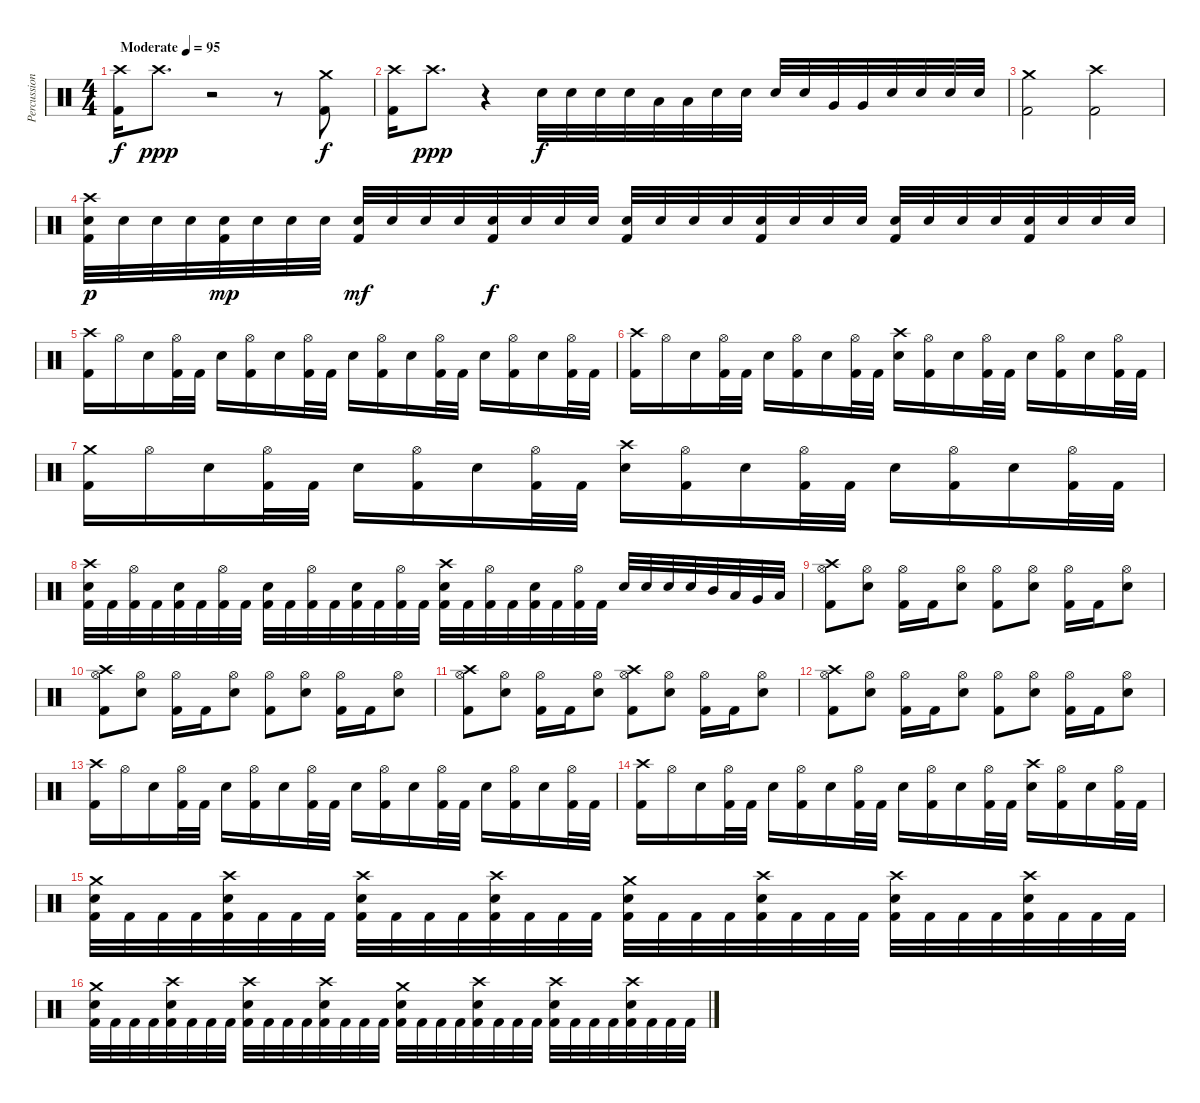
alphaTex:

\track ("Percussion" "Percussion") {instrument percussion}
\staff {score}
\articulation defaults
\ts (4 4)
\tempo (95 "Moderate")
\clef neutral
\ks c
("Crash high (hit)" "Kick (hit) 2").16{dy f} "Crash high (hit)".8{d dy ppp} r.2 r.8 ("Crash medium (hit)" "Kick (hit) 2").8{dy f} |
("Crash high (hit)" "Kick (hit) 2").16 "Crash high (hit)".8{d dy ppp} r.4 "Electric Snare (hit)".32{dy f} "Electric Snare (hit)".32 "Electric Snare (hit)".32 "Electric Snare (hit)".32 "Low Tom (hit)".32 "Low Tom (hit)".32 "Electric Snare (hit)".32 "Electric Snare (hit)".32 "Electric Snare (hit)".32 "Electric Snare (hit)".32 "Very Low Tom (hit)".32 "Very Low Tom (hit)".32 "Electric Snare (hit)".32 "Electric Snare (hit)".32 "Electric Snare (hit)".32 "Electric Snare (hit)".32 |
("Crash medium (hit)" "Kick (hit) 2").2 ("Crash high (hit)" "Kick (hit) 2").2 |
("Crash high (hit)" "Electric Snare (hit)" "Kick (hit) 2").32{dy p} "Electric Snare (hit)".32 "Electric Snare (hit)".32 "Electric Snare (hit)".32 ("Electric Snare (hit)" "Kick (hit) 2").32{dy mp} "Electric Snare (hit)".32 "Electric Snare (hit)".32 "Electric Snare (hit)".32 ("Electric Snare (hit)" "Kick (hit) 2").32{dy mf} "Electric Snare (hit)".32 "Electric Snare (hit)".32 "Electric Snare (hit)".32 ("Electric Snare (hit)" "Kick (hit) 2").32{dy f} "Electric Snare (hit)".32 "Electric Snare (hit)".32 "Electric Snare (hit)".32 ("Electric Snare (hit)" "Kick (hit) 2").32 "Electric Snare (hit)".32 "Electric Snare (hit)".32 "Electric Snare (hit)".32 ("Electric Snare (hit)" "Kick (hit) 2").32 "Electric Snare (hit)".32 "Electric Snare (hit)".32 "Electric Snare (hit)".32 ("Electric Snare (hit)" "Kick (hit) 2").32 "Electric Snare (hit)".32 "Electric Snare (hit)".32 "Electric Snare (hit)".32 ("Electric Snare (hit)" "Kick (hit) 2").32 "Electric Snare (hit)".32 "Electric Snare (hit)".32 "Electric Snare (hit)".32 |
("Crash high (hit)" "Kick (hit) 2").16 "Hi-Hat (open)".16 "Electric Snare (hit)".16 ("Hi-Hat (open)" "Kick (hit) 2").32 "Kick (hit) 2".32 "Electric Snare (hit)".16 ("Hi-Hat (open)" "Kick (hit) 2").16 "Electric Snare (hit)".16 ("Hi-Hat (open)" "Kick (hit) 2").32 "Kick (hit) 2".32 "Electric Snare (hit)".16 ("Hi-Hat (open)" "Kick (hit) 2").16 "Electric Snare (hit)".16 ("Hi-Hat (open)" "Kick (hit) 2").32 "Kick (hit) 2".32 "Electric Snare (hit)".16 ("Hi-Hat (open)" "Kick (hit) 2").16 "Electric Snare (hit)".16 ("Hi-Hat (open)" "Kick (hit) 2").32 "Kick (hit) 2".32 |
("Crash high (hit)" "Kick (hit) 2").16 "Hi-Hat (open)".16 "Electric Snare (hit)".16 ("Hi-Hat (open)" "Kick (hit) 2").32 "Kick (hit) 2".32 "Electric Snare (hit)".16 ("Hi-Hat (open)" "Kick (hit) 2").16 "Electric Snare (hit)".16 ("Hi-Hat (open)" "Kick (hit) 2").32 "Kick (hit) 2".32 ("Crash high (hit)" "Electric Snare (hit)").16 ("Hi-Hat (open)" "Kick (hit) 2").16 "Electric Snare (hit)".16 ("Hi-Hat (open)" "Kick (hit) 2").32 "Kick (hit) 2".32 "Electric Snare (hit)".16 ("Hi-Hat (open)" "Kick (hit) 2").16 "Electric Snare (hit)".16 ("Hi-Hat (open)" "Kick (hit) 2").32 "Kick (hit) 2".32 |
("Crash medium (hit)" "Kick (hit) 2").16 "Hi-Hat (open)".16 "Electric Snare (hit)".16 ("Hi-Hat (open)" "Kick (hit) 2").32 "Kick (hit) 2".32 "Electric Snare (hit)".16 ("Hi-Hat (open)" "Kick (hit) 2").16 "Electric Snare (hit)".16 ("Hi-Hat (open)" "Kick (hit) 2").32 "Kick (hit) 2".32 ("Crash high (hit)" "Electric Snare (hit)").16 ("Hi-Hat (open)" "Kick (hit) 2").16 "Electric Snare (hit)".16 ("Hi-Hat (open)" "Kick (hit) 2").32 "Kick (hit) 2".32 "Electric Snare (hit)".16 ("Hi-Hat (open)" "Kick (hit) 2").16 "Electric Snare (hit)".16 ("Hi-Hat (open)" "Kick (hit) 2").32 "Kick (hit) 2".32 |
("Crash high (hit)" "Electric Snare (hit)" "Kick (hit) 2").32 "Kick (hit) 2".32 ("Hi-Hat (open)" "Kick (hit) 2").32 "Kick (hit) 2".32 ("Electric Snare (hit)" "Kick (hit) 2").32 "Kick (hit) 2".32 ("Hi-Hat (open)" "Kick (hit) 2").32 "Kick (hit) 2".32 ("Electric Snare (hit)" "Kick (hit) 2").32 "Kick (hit) 2".32 ("Hi-Hat (open)" "Kick (hit) 2").32 "Kick (hit) 2".32 ("Electric Snare (hit)" "Kick (hit) 2").32 "Kick (hit) 2".32 ("Hi-Hat (open)" "Kick (hit) 2").32 "Kick (hit) 2".32 ("Crash high (hit)" "Electric Snare (hit)" "Kick (hit) 2").32 "Kick (hit) 2".32 ("Hi-Hat (open)" "Kick (hit) 2").32 "Kick (hit) 2".32 ("Electric Snare (hit)" "Kick (hit) 2").32 "Kick (hit) 2".32 ("Hi-Hat (open)" "Kick (hit) 2").32 "Kick (hit) 2".32 "Electric Snare (hit)".32 "Electric Snare (hit)".32 "Electric Snare (hit)".32 "Electric Snare (hit)".32 "Mid Tom (hit)".32 "Low Tom (hit)".32 "Very Low Tom (hit)".32 "Low Floor Tom (hit)".32 |
("Crash high (hit)" "Hi-Hat (open)" "Kick (hit) 2").8 ("Hi-Hat (open)" "Electric Snare (hit)").8 ("Hi-Hat (open)" "Kick (hit) 2").16 "Kick (hit) 2".16 ("Hi-Hat (open)" "Electric Snare (hit)").8 ("Hi-Hat (open)" "Kick (hit) 2").8 ("Hi-Hat (open)" "Electric Snare (hit)").8 ("Hi-Hat (open)" "Kick (hit) 2").16 "Kick (hit) 2".16 ("Hi-Hat (open)" "Electric Snare (hit)").8 |
("Crash high (hit)" "Hi-Hat (open)" "Kick (hit) 2").8 ("Hi-Hat (open)" "Electric Snare (hit)").8 ("Hi-Hat (open)" "Kick (hit) 2").16 "Kick (hit) 2".16 ("Hi-Hat (open)" "Electric Snare (hit)").8 ("Hi-Hat (open)" "Kick (hit) 2").8 ("Hi-Hat (open)" "Electric Snare (hit)").8 ("Hi-Hat (open)" "Kick (hit) 2").16 "Kick (hit) 2".16 ("Hi-Hat (open)" "Electric Snare (hit)").8 |
("Crash high (hit)" "Hi-Hat (open)" "Kick (hit) 2").8 ("Hi-Hat (open)" "Electric Snare (hit)").8 ("Hi-Hat (open)" "Kick (hit) 2").16 "Kick (hit) 2".16 ("Hi-Hat (open)" "Electric Snare (hit)").8 ("Crash high (hit)" "Hi-Hat (open)" "Kick (hit) 2").8 ("Hi-Hat (open)" "Electric Snare (hit)").8 ("Hi-Hat (open)" "Kick (hit) 2").16 "Kick (hit) 2".16 ("Hi-Hat (open)" "Electric Snare (hit)").8 |
("Crash high (hit)" "Hi-Hat (open)" "Kick (hit) 2").8 ("Hi-Hat (open)" "Electric Snare (hit)").8 ("Hi-Hat (open)" "Kick (hit) 2").16 "Kick (hit) 2".16 ("Hi-Hat (open)" "Electric Snare (hit)").8 ("Hi-Hat (open)" "Kick (hit) 2").8 ("Hi-Hat (open)" "Electric Snare (hit)").8 ("Hi-Hat (open)" "Kick (hit) 2").16 "Kick (hit) 2".16 ("Hi-Hat (open)" "Electric Snare (hit)").8 |
("Crash high (hit)" "Kick (hit) 2").16 "Hi-Hat (open)".16 "Electric Snare (hit)".16 ("Hi-Hat (open)" "Kick (hit) 2").32 "Kick (hit) 2".32 "Electric Snare (hit)".16 ("Hi-Hat (open)" "Kick (hit) 2").16 "Electric Snare (hit)".16 ("Hi-Hat (open)" "Kick (hit) 2").32 "Kick (hit) 2".32 "Electric Snare (hit)".16 ("Hi-Hat (open)" "Kick (hit) 2").16 "Electric Snare (hit)".16 ("Hi-Hat (open)" "Kick (hit) 2").32 "Kick (hit) 2".32 "Electric Snare (hit)".16 ("Hi-Hat (open)" "Kick (hit) 2").16 "Electric Snare (hit)".16 ("Hi-Hat (open)" "Kick (hit) 2").32 "Kick (hit) 2".32 |
("Crash high (hit)" "Kick (hit) 2").16 "Hi-Hat (open)".16 "Electric Snare (hit)".16 ("Hi-Hat (open)" "Kick (hit) 2").32 "Kick (hit) 2".32 "Electric Snare (hit)".16 ("Hi-Hat (open)" "Kick (hit) 2").16 "Electric Snare (hit)".16 ("Hi-Hat (open)" "Kick (hit) 2").32 "Kick (hit) 2".32 "Electric Snare (hit)".16 ("Hi-Hat (open)" "Kick (hit) 2").16 "Electric Snare (hit)".16 ("Hi-Hat (open)" "Kick (hit) 2").32 "Kick (hit) 2".32 ("Crash high (hit)" "Electric Snare (hit)").16 ("Hi-Hat (open)" "Kick (hit) 2").16 "Electric Snare (hit)".16 ("Hi-Hat (open)" "Kick (hit) 2").32 "Kick (hit) 2".32 |
("Crash medium (hit)" "Electric Snare (hit)" "Kick (hit) 2").32 "Kick (hit) 2".32 "Kick (hit) 2".32 "Kick (hit) 2".32 ("Crash high (hit)" "Electric Snare (hit)" "Kick (hit) 2").32 "Kick (hit) 2".32 "Kick (hit) 2".32 "Kick (hit) 2".32 ("Crash high (hit)" "Electric Snare (hit)" "Kick (hit) 2").32 "Kick (hit) 2".32 "Kick (hit) 2".32 "Kick (hit) 2".32 ("Crash high (hit)" "Electric Snare (hit)" "Kick (hit) 2").32 "Kick (hit) 2".32 "Kick (hit) 2".32 "Kick (hit) 2".32 ("Crash medium (hit)" "Electric Snare (hit)" "Kick (hit) 2").32 "Kick (hit) 2".32 "Kick (hit) 2".32 "Kick (hit) 2".32 ("Crash high (hit)" "Electric Snare (hit)" "Kick (hit) 2").32 "Kick (hit) 2".32 "Kick (hit) 2".32 "Kick (hit) 2".32 ("Crash high (hit)" "Electric Snare (hit)" "Kick (hit) 2").32 "Kick (hit) 2".32 "Kick (hit) 2".32 "Kick (hit) 2".32 ("Crash high (hit)" "Electric Snare (hit)" "Kick (hit) 2").32 "Kick (hit) 2".32 "Kick (hit) 2".32 "Kick (hit) 2".32 |
("Crash medium (hit)" "Electric Snare (hit)" "Kick (hit) 2").32 "Kick (hit) 2".32 "Kick (hit) 2".32 "Kick (hit) 2".32 ("Crash high (hit)" "Electric Snare (hit)" "Kick (hit) 2").32 "Kick (hit) 2".32 "Kick (hit) 2".32 "Kick (hit) 2".32 ("Crash high (hit)" "Electric Snare (hit)" "Kick (hit) 2").32 "Kick (hit) 2".32 "Kick (hit) 2".32 "Kick (hit) 2".32 ("Crash high (hit)" "Electric Snare (hit)" "Kick (hit) 2").32 "Kick (hit) 2".32 "Kick (hit) 2".32 "Kick (hit) 2".32 ("Crash medium (hit)" "Electric Snare (hit)" "Kick (hit) 2").32 "Kick (hit) 2".32 "Kick (hit) 2".32 "Kick (hit) 2".32 ("Crash high (hit)" "Electric Snare (hit)" "Kick (hit) 2").32 "Kick (hit) 2".32 "Kick (hit) 2".32 "Kick (hit) 2".32 ("Crash high (hit)" "Electric Snare (hit)" "Kick (hit) 2").32 "Kick (hit) 2".32 "Kick (hit) 2".32 "Kick (hit) 2".32 ("Crash high (hit)" "Electric Snare (hit)" "Kick (hit) 2").32 "Kick (hit) 2".32 "Kick (hit) 2".32 "Kick (hit) 2".32
